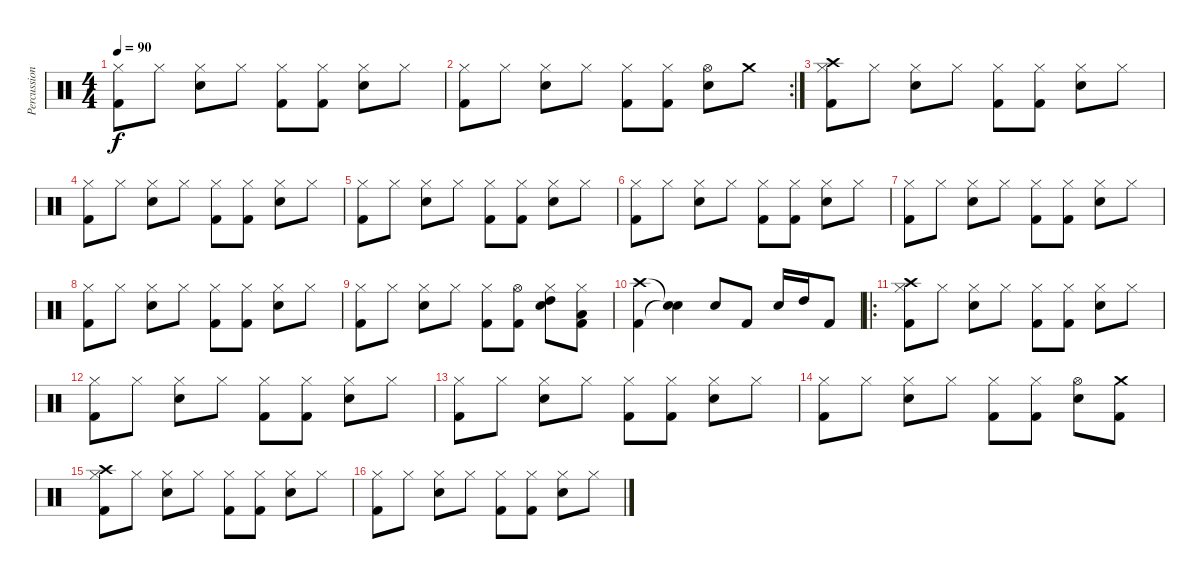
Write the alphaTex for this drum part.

\track ("Percussions" "Percussion") {instrument percussion}
\staff {score}
\articulation defaults
\ts (4 4)
\tempo 90
\clef neutral
\ks c
("Hi-Hat (closed)" "Kick (hit) 2").8{dy f} "Hi-Hat (closed)".8 ("Hi-Hat (closed)" "Snare (hit) 2").8 "Hi-Hat (closed)".8 ("Hi-Hat (closed)" "Kick (hit) 2").8 ("Hi-Hat (closed)" "Kick (hit) 2").8 ("Hi-Hat (closed)" "Snare (hit) 2").8 "Hi-Hat (closed)".8 |
\rc 2
("Hi-Hat (closed)" "Kick (hit) 2").8 "Hi-Hat (closed)".8 ("Hi-Hat (closed)" "Snare (hit) 2").8 "Hi-Hat (closed)".8 ("Hi-Hat (closed)" "Kick (hit) 2").8 ("Hi-Hat (closed)" "Kick (hit) 2").8 ("Hi-Hat (open)" "Snare (hit) 2").8 "Crash medium (hit)".8 |
("Crash high (hit)" "Hi-Hat (closed)" "Kick (hit) 2").8 "Hi-Hat (closed)".8 ("Hi-Hat (closed)" "Snare (hit) 2").8 "Hi-Hat (closed)".8 ("Hi-Hat (closed)" "Kick (hit) 2").8 ("Hi-Hat (closed)" "Kick (hit) 2").8 ("Hi-Hat (closed)" "Snare (hit) 2").8 "Hi-Hat (closed)".8 |
("Hi-Hat (closed)" "Kick (hit) 2").8 "Hi-Hat (closed)".8 ("Hi-Hat (closed)" "Snare (hit) 2").8 "Hi-Hat (closed)".8 ("Hi-Hat (closed)" "Kick (hit) 2").8 ("Hi-Hat (closed)" "Kick (hit) 2").8 ("Hi-Hat (closed)" "Snare (hit) 2").8 "Hi-Hat (closed)".8 |
("Hi-Hat (closed)" "Kick (hit) 2").8 "Hi-Hat (closed)".8 ("Hi-Hat (closed)" "Snare (hit) 2").8 "Hi-Hat (closed)".8 ("Hi-Hat (closed)" "Kick (hit) 2").8 ("Hi-Hat (closed)" "Kick (hit) 2").8 ("Hi-Hat (closed)" "Snare (hit) 2").8 "Hi-Hat (closed)".8 |
("Hi-Hat (closed)" "Kick (hit) 2").8 "Hi-Hat (closed)".8 ("Hi-Hat (closed)" "Snare (hit) 2").8 "Hi-Hat (closed)".8 ("Hi-Hat (closed)" "Kick (hit) 2").8 ("Hi-Hat (closed)" "Kick (hit) 2").8 ("Hi-Hat (closed)" "Snare (hit) 2").8 "Hi-Hat (closed)".8 |
("Hi-Hat (closed)" "Kick (hit) 2").8 "Hi-Hat (closed)".8 ("Hi-Hat (closed)" "Snare (hit) 2").8 "Hi-Hat (closed)".8 ("Hi-Hat (closed)" "Kick (hit) 2").8 ("Hi-Hat (closed)" "Kick (hit) 2").8 ("Hi-Hat (closed)" "Snare (hit) 2").8 "Hi-Hat (closed)".8 |
("Hi-Hat (closed)" "Kick (hit) 2").8 "Hi-Hat (closed)".8 ("Hi-Hat (closed)" "Snare (hit) 2").8 "Hi-Hat (closed)".8 ("Hi-Hat (closed)" "Kick (hit) 2").8 ("Hi-Hat (closed)" "Kick (hit) 2").8 ("Hi-Hat (closed)" "Snare (hit) 2").8 "Hi-Hat (closed)".8 |
("Hi-Hat (closed)" "Kick (hit) 2").8 "Hi-Hat (closed)".8 ("Hi-Hat (closed)" "Snare (hit) 2").8 "Hi-Hat (closed)".8 ("Hi-Hat (closed)" "Kick (hit) 2").8 ("Hi-Hat (open)" "Kick (hit) 2").8 ("Hi-Hat (closed)" "High Tom (hit)" "Snare (hit) 2").8 ("Hi-Hat (closed)" "Kick (hit) 2" "Low Tom (hit)").8 |
("Crash high (hit)" "Kick (hit) 2").4 ("Snare (hit)"{t} "Snare (hit)"{t}).4 "Snare (hit) 2".8 "Kick (hit) 2".8 "Snare (hit) 2".16 "High Tom (hit)".16 "Kick (hit) 2".8 |
\ro
("Crash high (hit)" "Hi-Hat (closed)" "Kick (hit) 2").8 "Hi-Hat (closed)".8 ("Hi-Hat (closed)" "Snare (hit) 2").8 "Hi-Hat (closed)".8 ("Hi-Hat (closed)" "Kick (hit) 2").8 ("Hi-Hat (closed)" "Kick (hit) 2").8 ("Hi-Hat (closed)" "Snare (hit) 2").8 "Hi-Hat (closed)".8 |
("Hi-Hat (closed)" "Kick (hit) 2").8 "Hi-Hat (closed)".8 ("Hi-Hat (closed)" "Snare (hit) 2").8 "Hi-Hat (closed)".8 ("Hi-Hat (closed)" "Kick (hit) 2").8 ("Hi-Hat (closed)" "Kick (hit) 2").8 ("Hi-Hat (closed)" "Snare (hit) 2").8 "Hi-Hat (closed)".8 |
("Hi-Hat (closed)" "Kick (hit) 2").8 "Hi-Hat (closed)".8 ("Hi-Hat (closed)" "Snare (hit) 2").8 "Hi-Hat (closed)".8 ("Hi-Hat (closed)" "Kick (hit) 2").8 ("Hi-Hat (closed)" "Kick (hit) 2").8 ("Hi-Hat (closed)" "Snare (hit) 2").8 "Hi-Hat (closed)".8 |
("Hi-Hat (closed)" "Kick (hit) 2").8 "Hi-Hat (closed)".8 ("Hi-Hat (closed)" "Snare (hit) 2").8 "Hi-Hat (closed)".8 ("Hi-Hat (closed)" "Kick (hit) 2").8 ("Hi-Hat (closed)" "Kick (hit) 2").8 ("Hi-Hat (open)" "Snare (hit) 2").8 ("Crash medium (hit)" "Kick (hit) 2").8 |
("Crash high (hit)" "Hi-Hat (closed)" "Kick (hit) 2").8 "Hi-Hat (closed)".8 ("Hi-Hat (closed)" "Snare (hit) 2").8 "Hi-Hat (closed)".8 ("Hi-Hat (closed)" "Kick (hit) 2").8 ("Hi-Hat (closed)" "Kick (hit) 2").8 ("Hi-Hat (closed)" "Snare (hit) 2").8 "Hi-Hat (closed)".8 |
("Hi-Hat (closed)" "Kick (hit) 2").8 "Hi-Hat (closed)".8 ("Hi-Hat (closed)" "Snare (hit) 2").8 "Hi-Hat (closed)".8 ("Hi-Hat (closed)" "Kick (hit) 2").8 ("Hi-Hat (closed)" "Kick (hit) 2").8 ("Hi-Hat (closed)" "Snare (hit) 2").8 "Hi-Hat (closed)".8
